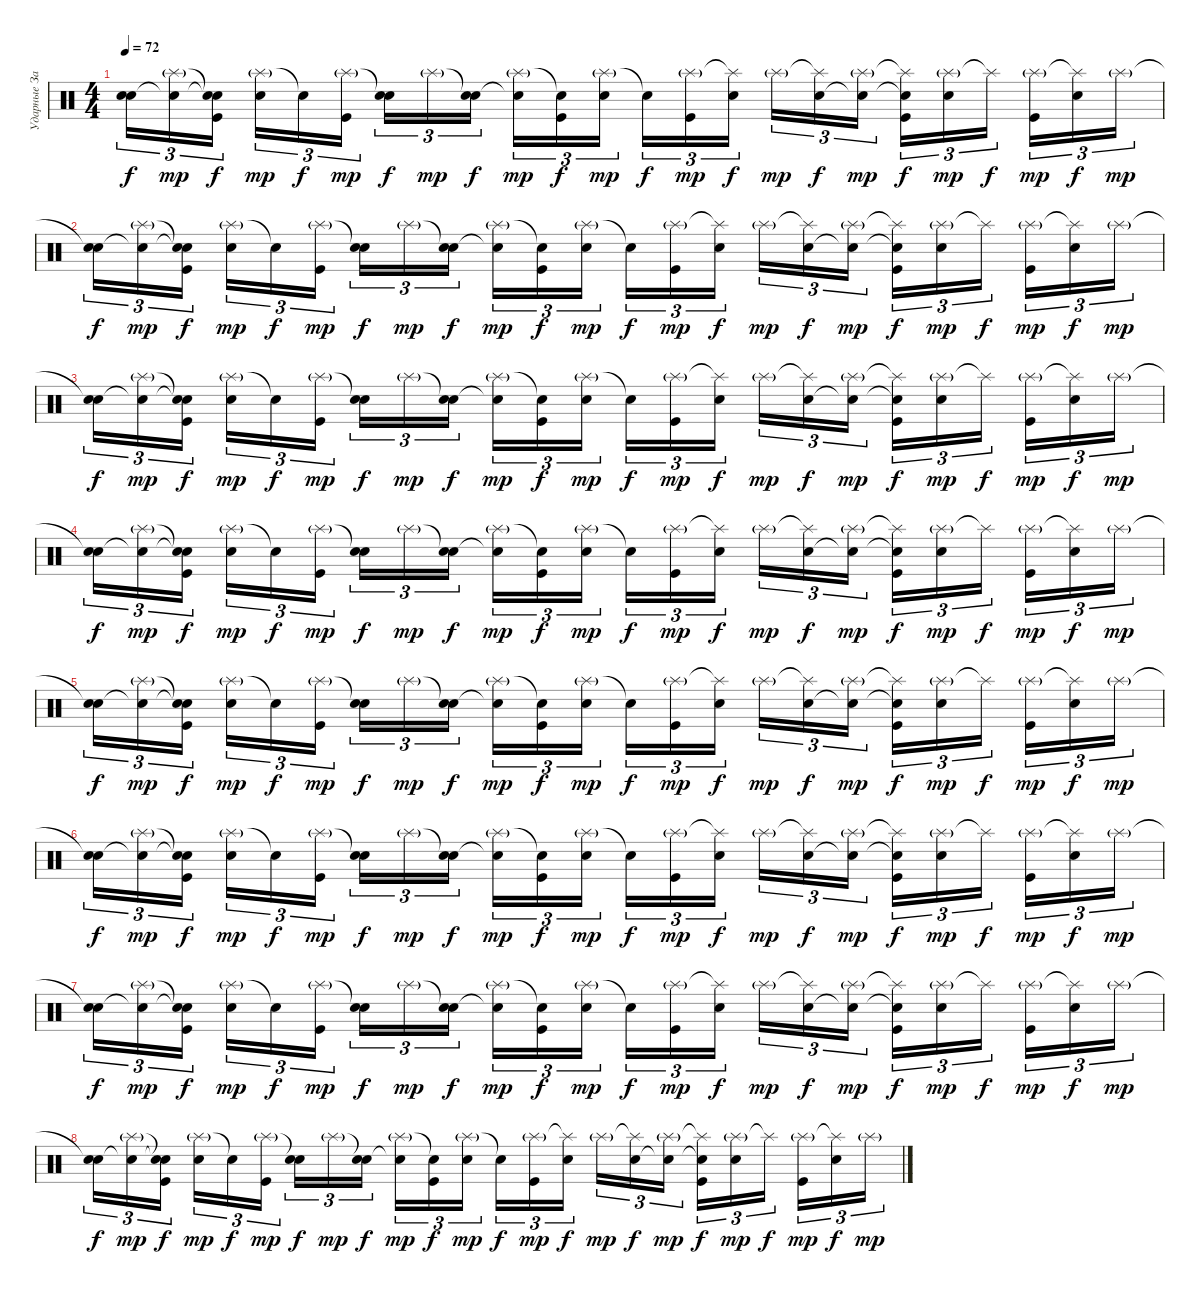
\track ("Ударные Запарили(" "Ударные За") {instrument percussion}
\staff {score}
\articulation defaults
\ts (4 4)
\tempo 72
\clef neutral
\ks c
("Snare (hit)"{t} "Snare (hit) 2").16{tu (3 2) dy f} ("Splash (hit)"{g} "Snare (hit) 2"{t}).16{tu (3 2) dy mp} ("Snare (hit)"{t} "Snare (hit) 2"{t} "Kick (hit)").16{tu (3 2) dy f beam splitsecondary} ("Splash (hit)"{g} "Snare (hit) 2").16{tu (3 2) dy mp} "Snare (hit)"{t}.16{tu (3 2) dy f} ("Splash (hit)"{g} "Kick (hit)").16{tu (3 2) dy mp} ("Snare (hit)"{t} "Snare (hit) 2").16{tu (3 2) dy f} "Splash (hit)"{g}.16{tu (3 2) dy mp} ("Snare (hit)"{t} "Snare (hit) 2").16{tu (3 2) dy f beam splitsecondary} ("Splash (hit)"{g} "Snare (hit) 2"{t}).16{tu (3 2) dy mp} ("Snare (hit) 2"{t} "Kick (hit)").16{tu (3 2) dy f} ("Splash (hit)"{g} "Snare (hit) 2").16{tu (3 2) dy mp} "Snare (hit)"{t}.16{tu (3 2) dy f} ("Splash (hit)"{g} "Kick (hit)").16{tu (3 2) dy mp} ("Splash (hit)"{t} "Snare (hit) 2").16{tu (3 2) dy f beam splitsecondary} "Splash (hit)"{g}.16{tu (3 2) dy mp} ("Splash (hit)"{t} "Snare (hit) 2").16{tu (3 2) dy f} ("Splash (hit)"{g} "Snare (hit) 2"{t}).16{tu (3 2) dy mp} ("Splash (hit)"{t} "Snare (hit) 2"{t} "Kick (hit)").16{tu (3 2) dy f} ("Splash (hit)"{g} "Snare (hit) 2").16{tu (3 2) dy mp} "Splash (hit)"{t}.16{tu (3 2) dy f beam splitsecondary} ("Splash (hit)"{g} "Kick (hit)").16{tu (3 2) dy mp} ("Splash (hit)"{t} "Snare (hit) 2").16{tu (3 2) dy f} "Splash (hit)"{g}.16{tu (3 2) dy mp} |
("Snare (hit)"{t} "Snare (hit) 2").16{tu (3 2) dy f} ("Splash (hit)"{g} "Snare (hit) 2"{t}).16{tu (3 2) dy mp} ("Snare (hit)"{t} "Snare (hit) 2"{t} "Kick (hit)").16{tu (3 2) dy f beam splitsecondary} ("Splash (hit)"{g} "Snare (hit) 2").16{tu (3 2) dy mp} "Snare (hit)"{t}.16{tu (3 2) dy f} ("Splash (hit)"{g} "Kick (hit)").16{tu (3 2) dy mp} ("Snare (hit)"{t} "Snare (hit) 2").16{tu (3 2) dy f} "Splash (hit)"{g}.16{tu (3 2) dy mp} ("Snare (hit)"{t} "Snare (hit) 2").16{tu (3 2) dy f beam splitsecondary} ("Splash (hit)"{g} "Snare (hit) 2"{t}).16{tu (3 2) dy mp} ("Snare (hit) 2"{t} "Kick (hit)").16{tu (3 2) dy f} ("Splash (hit)"{g} "Snare (hit) 2").16{tu (3 2) dy mp} "Snare (hit)"{t}.16{tu (3 2) dy f} ("Splash (hit)"{g} "Kick (hit)").16{tu (3 2) dy mp} ("Splash (hit)"{t} "Snare (hit) 2").16{tu (3 2) dy f beam splitsecondary} "Splash (hit)"{g}.16{tu (3 2) dy mp} ("Splash (hit)"{t} "Snare (hit) 2").16{tu (3 2) dy f} ("Splash (hit)"{g} "Snare (hit) 2"{t}).16{tu (3 2) dy mp} ("Splash (hit)"{t} "Snare (hit) 2"{t} "Kick (hit)").16{tu (3 2) dy f} ("Splash (hit)"{g} "Snare (hit) 2").16{tu (3 2) dy mp} "Splash (hit)"{t}.16{tu (3 2) dy f beam splitsecondary} ("Splash (hit)"{g} "Kick (hit)").16{tu (3 2) dy mp} ("Splash (hit)"{t} "Snare (hit) 2").16{tu (3 2) dy f} "Splash (hit)"{g}.16{tu (3 2) dy mp} |
("Snare (hit)"{t} "Snare (hit) 2").16{tu (3 2) dy f} ("Splash (hit)"{g} "Snare (hit) 2"{t}).16{tu (3 2) dy mp} ("Snare (hit)"{t} "Snare (hit) 2"{t} "Kick (hit)").16{tu (3 2) dy f beam splitsecondary} ("Splash (hit)"{g} "Snare (hit) 2").16{tu (3 2) dy mp} "Snare (hit)"{t}.16{tu (3 2) dy f} ("Splash (hit)"{g} "Kick (hit)").16{tu (3 2) dy mp} ("Snare (hit)"{t} "Snare (hit) 2").16{tu (3 2) dy f} "Splash (hit)"{g}.16{tu (3 2) dy mp} ("Snare (hit)"{t} "Snare (hit) 2").16{tu (3 2) dy f beam splitsecondary} ("Splash (hit)"{g} "Snare (hit) 2"{t}).16{tu (3 2) dy mp} ("Snare (hit) 2"{t} "Kick (hit)").16{tu (3 2) dy f} ("Splash (hit)"{g} "Snare (hit) 2").16{tu (3 2) dy mp} "Snare (hit)"{t}.16{tu (3 2) dy f} ("Splash (hit)"{g} "Kick (hit)").16{tu (3 2) dy mp} ("Splash (hit)"{t} "Snare (hit) 2").16{tu (3 2) dy f beam splitsecondary} "Splash (hit)"{g}.16{tu (3 2) dy mp} ("Splash (hit)"{t} "Snare (hit) 2").16{tu (3 2) dy f} ("Splash (hit)"{g} "Snare (hit) 2"{t}).16{tu (3 2) dy mp} ("Splash (hit)"{t} "Snare (hit) 2"{t} "Kick (hit)").16{tu (3 2) dy f} ("Splash (hit)"{g} "Snare (hit) 2").16{tu (3 2) dy mp} "Splash (hit)"{t}.16{tu (3 2) dy f beam splitsecondary} ("Splash (hit)"{g} "Kick (hit)").16{tu (3 2) dy mp} ("Splash (hit)"{t} "Snare (hit) 2").16{tu (3 2) dy f} "Splash (hit)"{g}.16{tu (3 2) dy mp} |
("Snare (hit)"{t} "Snare (hit) 2").16{tu (3 2) dy f} ("Splash (hit)"{g} "Snare (hit) 2"{t}).16{tu (3 2) dy mp} ("Snare (hit)"{t} "Snare (hit) 2"{t} "Kick (hit)").16{tu (3 2) dy f beam splitsecondary} ("Splash (hit)"{g} "Snare (hit) 2").16{tu (3 2) dy mp} "Snare (hit)"{t}.16{tu (3 2) dy f} ("Splash (hit)"{g} "Kick (hit)").16{tu (3 2) dy mp} ("Snare (hit)"{t} "Snare (hit) 2").16{tu (3 2) dy f} "Splash (hit)"{g}.16{tu (3 2) dy mp} ("Snare (hit)"{t} "Snare (hit) 2").16{tu (3 2) dy f beam splitsecondary} ("Splash (hit)"{g} "Snare (hit) 2"{t}).16{tu (3 2) dy mp} ("Snare (hit) 2"{t} "Kick (hit)").16{tu (3 2) dy f} ("Splash (hit)"{g} "Snare (hit) 2").16{tu (3 2) dy mp} "Snare (hit)"{t}.16{tu (3 2) dy f} ("Splash (hit)"{g} "Kick (hit)").16{tu (3 2) dy mp} ("Splash (hit)"{t} "Snare (hit) 2").16{tu (3 2) dy f beam splitsecondary} "Splash (hit)"{g}.16{tu (3 2) dy mp} ("Splash (hit)"{t} "Snare (hit) 2").16{tu (3 2) dy f} ("Splash (hit)"{g} "Snare (hit) 2"{t}).16{tu (3 2) dy mp} ("Splash (hit)"{t} "Snare (hit) 2"{t} "Kick (hit)").16{tu (3 2) dy f} ("Splash (hit)"{g} "Snare (hit) 2").16{tu (3 2) dy mp} "Splash (hit)"{t}.16{tu (3 2) dy f beam splitsecondary} ("Splash (hit)"{g} "Kick (hit)").16{tu (3 2) dy mp} ("Splash (hit)"{t} "Snare (hit) 2").16{tu (3 2) dy f} "Splash (hit)"{g}.16{tu (3 2) dy mp} |
("Snare (hit)"{t} "Snare (hit) 2").16{tu (3 2) dy f} ("Splash (hit)"{g} "Snare (hit) 2"{t}).16{tu (3 2) dy mp} ("Snare (hit)"{t} "Snare (hit) 2"{t} "Kick (hit)").16{tu (3 2) dy f beam splitsecondary} ("Splash (hit)"{g} "Snare (hit) 2").16{tu (3 2) dy mp} "Snare (hit)"{t}.16{tu (3 2) dy f} ("Splash (hit)"{g} "Kick (hit)").16{tu (3 2) dy mp} ("Snare (hit)"{t} "Snare (hit) 2").16{tu (3 2) dy f} "Splash (hit)"{g}.16{tu (3 2) dy mp} ("Snare (hit)"{t} "Snare (hit) 2").16{tu (3 2) dy f beam splitsecondary} ("Splash (hit)"{g} "Snare (hit) 2"{t}).16{tu (3 2) dy mp} ("Snare (hit) 2"{t} "Kick (hit)").16{tu (3 2) dy f} ("Splash (hit)"{g} "Snare (hit) 2").16{tu (3 2) dy mp} "Snare (hit)"{t}.16{tu (3 2) dy f} ("Splash (hit)"{g} "Kick (hit)").16{tu (3 2) dy mp} ("Splash (hit)"{t} "Snare (hit) 2").16{tu (3 2) dy f beam splitsecondary} "Splash (hit)"{g}.16{tu (3 2) dy mp} ("Splash (hit)"{t} "Snare (hit) 2").16{tu (3 2) dy f} ("Splash (hit)"{g} "Snare (hit) 2"{t}).16{tu (3 2) dy mp} ("Splash (hit)"{t} "Snare (hit) 2"{t} "Kick (hit)").16{tu (3 2) dy f} ("Splash (hit)"{g} "Snare (hit) 2").16{tu (3 2) dy mp} "Splash (hit)"{t}.16{tu (3 2) dy f beam splitsecondary} ("Splash (hit)"{g} "Kick (hit)").16{tu (3 2) dy mp} ("Splash (hit)"{t} "Snare (hit) 2").16{tu (3 2) dy f} "Splash (hit)"{g}.16{tu (3 2) dy mp} |
("Snare (hit)"{t} "Snare (hit) 2").16{tu (3 2) dy f} ("Splash (hit)"{g} "Snare (hit) 2"{t}).16{tu (3 2) dy mp} ("Snare (hit)"{t} "Snare (hit) 2"{t} "Kick (hit)").16{tu (3 2) dy f beam splitsecondary} ("Splash (hit)"{g} "Snare (hit) 2").16{tu (3 2) dy mp} "Snare (hit)"{t}.16{tu (3 2) dy f} ("Splash (hit)"{g} "Kick (hit)").16{tu (3 2) dy mp} ("Snare (hit)"{t} "Snare (hit) 2").16{tu (3 2) dy f} "Splash (hit)"{g}.16{tu (3 2) dy mp} ("Snare (hit)"{t} "Snare (hit) 2").16{tu (3 2) dy f beam splitsecondary} ("Splash (hit)"{g} "Snare (hit) 2"{t}).16{tu (3 2) dy mp} ("Snare (hit) 2"{t} "Kick (hit)").16{tu (3 2) dy f} ("Splash (hit)"{g} "Snare (hit) 2").16{tu (3 2) dy mp} "Snare (hit)"{t}.16{tu (3 2) dy f} ("Splash (hit)"{g} "Kick (hit)").16{tu (3 2) dy mp} ("Splash (hit)"{t} "Snare (hit) 2").16{tu (3 2) dy f beam splitsecondary} "Splash (hit)"{g}.16{tu (3 2) dy mp} ("Splash (hit)"{t} "Snare (hit) 2").16{tu (3 2) dy f} ("Splash (hit)"{g} "Snare (hit) 2"{t}).16{tu (3 2) dy mp} ("Splash (hit)"{t} "Snare (hit) 2"{t} "Kick (hit)").16{tu (3 2) dy f} ("Splash (hit)"{g} "Snare (hit) 2").16{tu (3 2) dy mp} "Splash (hit)"{t}.16{tu (3 2) dy f beam splitsecondary} ("Splash (hit)"{g} "Kick (hit)").16{tu (3 2) dy mp} ("Splash (hit)"{t} "Snare (hit) 2").16{tu (3 2) dy f} "Splash (hit)"{g}.16{tu (3 2) dy mp} |
("Snare (hit)"{t} "Snare (hit) 2").16{tu (3 2) dy f} ("Splash (hit)"{g} "Snare (hit) 2"{t}).16{tu (3 2) dy mp} ("Snare (hit)"{t} "Snare (hit) 2"{t} "Kick (hit)").16{tu (3 2) dy f beam splitsecondary} ("Splash (hit)"{g} "Snare (hit) 2").16{tu (3 2) dy mp} "Snare (hit)"{t}.16{tu (3 2) dy f} ("Splash (hit)"{g} "Kick (hit)").16{tu (3 2) dy mp} ("Snare (hit)"{t} "Snare (hit) 2").16{tu (3 2) dy f} "Splash (hit)"{g}.16{tu (3 2) dy mp} ("Snare (hit)"{t} "Snare (hit) 2").16{tu (3 2) dy f beam splitsecondary} ("Splash (hit)"{g} "Snare (hit) 2"{t}).16{tu (3 2) dy mp} ("Snare (hit) 2"{t} "Kick (hit)").16{tu (3 2) dy f} ("Splash (hit)"{g} "Snare (hit) 2").16{tu (3 2) dy mp} "Snare (hit)"{t}.16{tu (3 2) dy f} ("Splash (hit)"{g} "Kick (hit)").16{tu (3 2) dy mp} ("Splash (hit)"{t} "Snare (hit) 2").16{tu (3 2) dy f beam splitsecondary} "Splash (hit)"{g}.16{tu (3 2) dy mp} ("Splash (hit)"{t} "Snare (hit) 2").16{tu (3 2) dy f} ("Splash (hit)"{g} "Snare (hit) 2"{t}).16{tu (3 2) dy mp} ("Splash (hit)"{t} "Snare (hit) 2"{t} "Kick (hit)").16{tu (3 2) dy f} ("Splash (hit)"{g} "Snare (hit) 2").16{tu (3 2) dy mp} "Splash (hit)"{t}.16{tu (3 2) dy f beam splitsecondary} ("Splash (hit)"{g} "Kick (hit)").16{tu (3 2) dy mp} ("Splash (hit)"{t} "Snare (hit) 2").16{tu (3 2) dy f} "Splash (hit)"{g}.16{tu (3 2) dy mp} |
("Snare (hit)"{t} "Snare (hit) 2").16{tu (3 2) dy f} ("Splash (hit)"{g} "Snare (hit) 2"{t}).16{tu (3 2) dy mp} ("Snare (hit)"{t} "Snare (hit) 2"{t} "Kick (hit)").16{tu (3 2) dy f beam splitsecondary} ("Splash (hit)"{g} "Snare (hit) 2").16{tu (3 2) dy mp} "Snare (hit)"{t}.16{tu (3 2) dy f} ("Splash (hit)"{g} "Kick (hit)").16{tu (3 2) dy mp} ("Snare (hit)"{t} "Snare (hit) 2").16{tu (3 2) dy f} "Splash (hit)"{g}.16{tu (3 2) dy mp} ("Snare (hit)"{t} "Snare (hit) 2").16{tu (3 2) dy f beam splitsecondary} ("Splash (hit)"{g} "Snare (hit) 2"{t}).16{tu (3 2) dy mp} ("Snare (hit) 2"{t} "Kick (hit)").16{tu (3 2) dy f} ("Splash (hit)"{g} "Snare (hit) 2").16{tu (3 2) dy mp} "Snare (hit)"{t}.16{tu (3 2) dy f} ("Splash (hit)"{g} "Kick (hit)").16{tu (3 2) dy mp} ("Splash (hit)"{t} "Snare (hit) 2").16{tu (3 2) dy f beam splitsecondary} "Splash (hit)"{g}.16{tu (3 2) dy mp} ("Splash (hit)"{t} "Snare (hit) 2").16{tu (3 2) dy f} ("Splash (hit)"{g} "Snare (hit) 2"{t}).16{tu (3 2) dy mp} ("Splash (hit)"{t} "Snare (hit) 2"{t} "Kick (hit)").16{tu (3 2) dy f} ("Splash (hit)"{g} "Snare (hit) 2").16{tu (3 2) dy mp} "Splash (hit)"{t}.16{tu (3 2) dy f beam splitsecondary} ("Splash (hit)"{g} "Kick (hit)").16{tu (3 2) dy mp} ("Splash (hit)"{t} "Snare (hit) 2").16{tu (3 2) dy f} "Splash (hit)"{g}.16{tu (3 2) dy mp}
